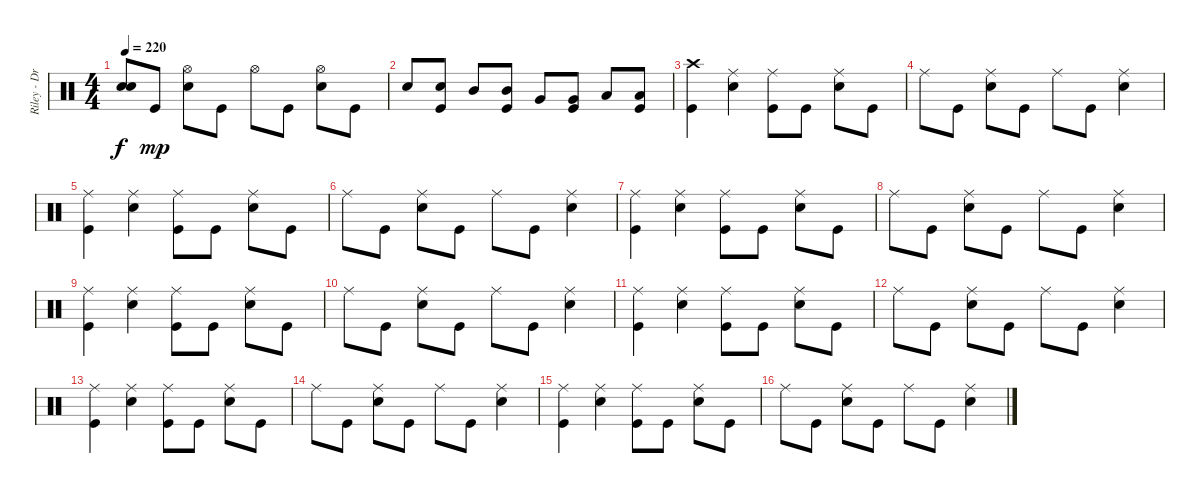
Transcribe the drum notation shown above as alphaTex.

\track ("Riley - Drums" "Riley - Dr") {instrument percussion}
\staff {score}
\articulation defaults
\ts (4 4)
\tempo 220
\clef neutral
\ks c
("Snare (hit)"{t} "Snare (hit)"{t}).8{dy f} "Kick (hit)".8{dy mp} ("Electric Snare (hit)" "Hi-Hat (open)").8 "Kick (hit)".8 "Hi-Hat (open)".8 "Kick (hit)".8 ("Electric Snare (hit)" "Hi-Hat (open)").8 "Kick (hit)".8 |
"Electric Snare (hit)".8 ("Kick (hit)" "Electric Snare (hit)").8 "Mid Tom (hit)".8 ("Kick (hit)" "Mid Tom (hit)").8 "Very Low Tom (hit)".8 ("Kick (hit)" "Very Low Tom (hit)").8 "Low Floor Tom (hit)".8 ("Kick (hit)" "Low Floor Tom (hit)").8 |
("Kick (hit)" "Crash high (hit)").4 ("Electric Snare (hit)" "Ride (middle)").4 ("Kick (hit)" "Ride (middle)").8 "Kick (hit)".8 ("Electric Snare (hit)" "Ride (middle)").8 "Kick (hit)".8 |
"Ride (middle)".8 "Kick (hit)".8 ("Electric Snare (hit)" "Ride (middle)").8 "Kick (hit)".8 "Ride (middle)".8 "Kick (hit)".8 ("Electric Snare (hit)" "Ride (middle)").4 |
("Kick (hit)" "Ride (middle)").4 ("Electric Snare (hit)" "Ride (middle)").4 ("Kick (hit)" "Ride (middle)").8 "Kick (hit)".8 ("Electric Snare (hit)" "Ride (middle)").8 "Kick (hit)".8 |
"Ride (middle)".8 "Kick (hit)".8 ("Electric Snare (hit)" "Ride (middle)").8 "Kick (hit)".8 "Ride (middle)".8 "Kick (hit)".8 ("Electric Snare (hit)" "Ride (middle)").4 |
("Kick (hit)" "Ride (middle)").4 ("Electric Snare (hit)" "Ride (middle)").4 ("Kick (hit)" "Ride (middle)").8 "Kick (hit)".8 ("Electric Snare (hit)" "Ride (middle)").8 "Kick (hit)".8 |
"Ride (middle)".8 "Kick (hit)".8 ("Electric Snare (hit)" "Ride (middle)").8 "Kick (hit)".8 "Ride (middle)".8 "Kick (hit)".8 ("Electric Snare (hit)" "Ride (middle)").4 |
("Kick (hit)" "Ride (middle)").4 ("Electric Snare (hit)" "Ride (middle)").4 ("Kick (hit)" "Ride (middle)").8 "Kick (hit)".8 ("Electric Snare (hit)" "Ride (middle)").8 "Kick (hit)".8 |
"Ride (middle)".8 "Kick (hit)".8 ("Electric Snare (hit)" "Ride (middle)").8 "Kick (hit)".8 "Ride (middle)".8 "Kick (hit)".8 ("Electric Snare (hit)" "Ride (middle)").4 |
("Kick (hit)" "Ride (middle)").4 ("Electric Snare (hit)" "Ride (middle)").4 ("Kick (hit)" "Ride (middle)").8 "Kick (hit)".8 ("Electric Snare (hit)" "Ride (middle)").8 "Kick (hit)".8 |
"Ride (middle)".8 "Kick (hit)".8 ("Electric Snare (hit)" "Ride (middle)").8 "Kick (hit)".8 "Ride (middle)".8 "Kick (hit)".8 ("Electric Snare (hit)" "Ride (middle)").4 |
("Kick (hit)" "Ride (middle)").4 ("Electric Snare (hit)" "Ride (middle)").4 ("Kick (hit)" "Ride (middle)").8 "Kick (hit)".8 ("Electric Snare (hit)" "Ride (middle)").8 "Kick (hit)".8 |
"Ride (middle)".8 "Kick (hit)".8 ("Electric Snare (hit)" "Ride (middle)").8 "Kick (hit)".8 "Ride (middle)".8 "Kick (hit)".8 ("Electric Snare (hit)" "Ride (middle)").4 |
("Kick (hit)" "Ride (middle)").4 ("Electric Snare (hit)" "Ride (middle)").4 ("Kick (hit)" "Ride (middle)").8 "Kick (hit)".8 ("Electric Snare (hit)" "Ride (middle)").8 "Kick (hit)".8 |
"Ride (middle)".8 "Kick (hit)".8 ("Electric Snare (hit)" "Ride (middle)").8 "Kick (hit)".8 "Ride (middle)".8 "Kick (hit)".8 ("Electric Snare (hit)" "Ride (middle)").4
